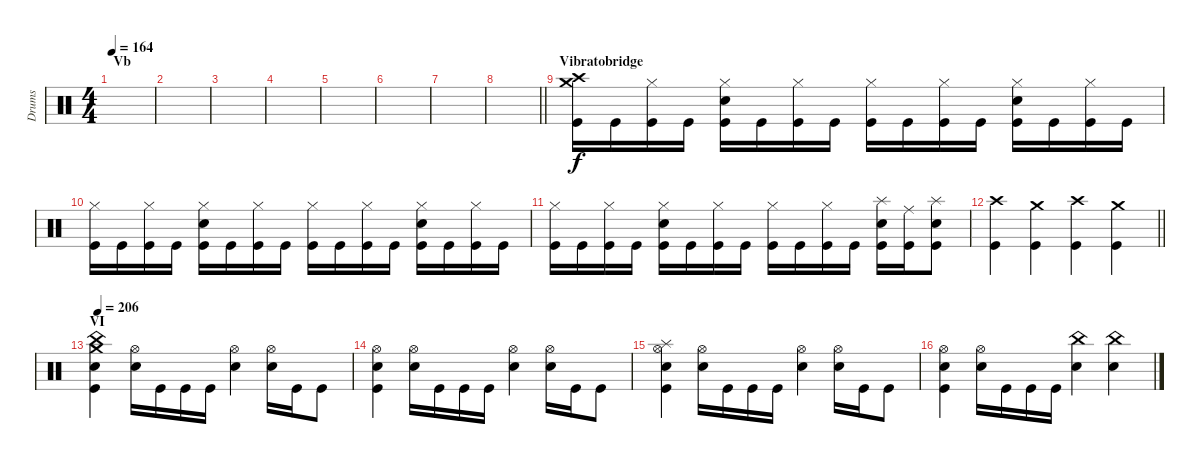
\track ("Drums" "Drums") {instrument percussion}
\staff {score}
\articulation defaults
\ts (4 4)
\section ("" "Vb")
\tempo 164
\clef neutral
\ks c
|
|
|
|
|
|
|
\barLineRight lightlight
|
\section ("" "Vibratobridge")
("Crash medium (hit)" "Crash high (hit)" "Kick (hit)").16 "Kick (hit)".16 ("Hi-Hat (closed)" "Kick (hit)").16 "Kick (hit)".16 ("Hi-Hat (closed)" "Electric Snare (hit)" "Kick (hit)").16 "Kick (hit)".16 ("Hi-Hat (closed)" "Kick (hit)").16 "Kick (hit)".16 ("Hi-Hat (closed)" "Kick (hit)").16 "Kick (hit)".16 ("Hi-Hat (closed)" "Kick (hit)").16 "Kick (hit)".16 ("Hi-Hat (closed)" "Electric Snare (hit)" "Kick (hit)").16 "Kick (hit)".16 ("Hi-Hat (closed)" "Kick (hit)").16 "Kick (hit)".16 |
("Hi-Hat (closed)" "Kick (hit)").16 "Kick (hit)".16 ("Hi-Hat (closed)" "Kick (hit)").16 "Kick (hit)".16 ("Hi-Hat (closed)" "Electric Snare (hit)" "Kick (hit)").16 "Kick (hit)".16 ("Hi-Hat (closed)" "Kick (hit)").16 "Kick (hit)".16 ("Hi-Hat (closed)" "Kick (hit)").16 "Kick (hit)".16 ("Hi-Hat (closed)" "Kick (hit)").16 "Kick (hit)".16 ("Hi-Hat (closed)" "Electric Snare (hit)" "Kick (hit)").16 "Kick (hit)".16 ("Hi-Hat (closed)" "Kick (hit)").16 "Kick (hit)".16 |
("Hi-Hat (closed)" "Kick (hit)").16 "Kick (hit)".16 ("Hi-Hat (closed)" "Kick (hit)").16 "Kick (hit)".16 ("Hi-Hat (closed)" "Electric Snare (hit)" "Kick (hit)").16 "Kick (hit)".16 ("Hi-Hat (closed)" "Kick (hit)").16 "Kick (hit)".16 ("Hi-Hat (closed)" "Kick (hit)").16 "Kick (hit)".16 ("Hi-Hat (closed)" "Kick (hit)").16 "Kick (hit)".16 ("Splash (hit)" "Electric Snare (hit)" "Kick (hit)").16 ("Ride (middle)" "Kick (hit)").16 ("Splash (hit)" "Electric Snare (hit)" "Kick (hit)").8 |
\barLineRight lightlight
("Crash high (hit)" "Kick (hit)").4 ("Crash medium (hit)" "Kick (hit)").4 ("Crash high (hit)" "Kick (hit)").4 ("Crash medium (hit)" "Kick (hit)").4 |
\section ("" "VI")
\tempo 206
("China (hit)" "Crash medium (hit)" "Electric Snare (hit)" "Kick (hit)").4 ("Hi-Hat (open)" "Electric Snare (hit)").16 "Kick (hit)".16 "Kick (hit)".16 "Kick (hit)".16 ("Hi-Hat (open)" "Electric Snare (hit)").4 ("Hi-Hat (open)" "Electric Snare (hit)").16 "Kick (hit)".16 "Kick (hit)".8 |
("Hi-Hat (open)" "Electric Snare (hit)" "Kick (hit)").4 ("Hi-Hat (open)" "Electric Snare (hit)").16 "Kick (hit)".16 "Kick (hit)".16 "Kick (hit)".16 ("Hi-Hat (open)" "Electric Snare (hit)").4 ("Hi-Hat (open)" "Electric Snare (hit)").16 "Kick (hit)".16 "Kick (hit)".8 |
("Splash (hit)" "Hi-Hat (open)" "Electric Snare (hit)" "Kick (hit)").4 ("Hi-Hat (open)" "Electric Snare (hit)").16 "Kick (hit)".16 "Kick (hit)".16 "Kick (hit)".16 ("Hi-Hat (open)" "Electric Snare (hit)").4 ("Hi-Hat (open)" "Electric Snare (hit)").16 "Kick (hit)".16 "Kick (hit)".8 |
("Hi-Hat (open)" "Electric Snare (hit)" "Kick (hit)").4 ("Hi-Hat (open)" "Electric Snare (hit)").16 "Kick (hit)".16 "Kick (hit)".16 "Kick (hit)".16 ("China (hit)" "Electric Snare (hit)").4 ("China (hit)" "Electric Snare (hit)").4
